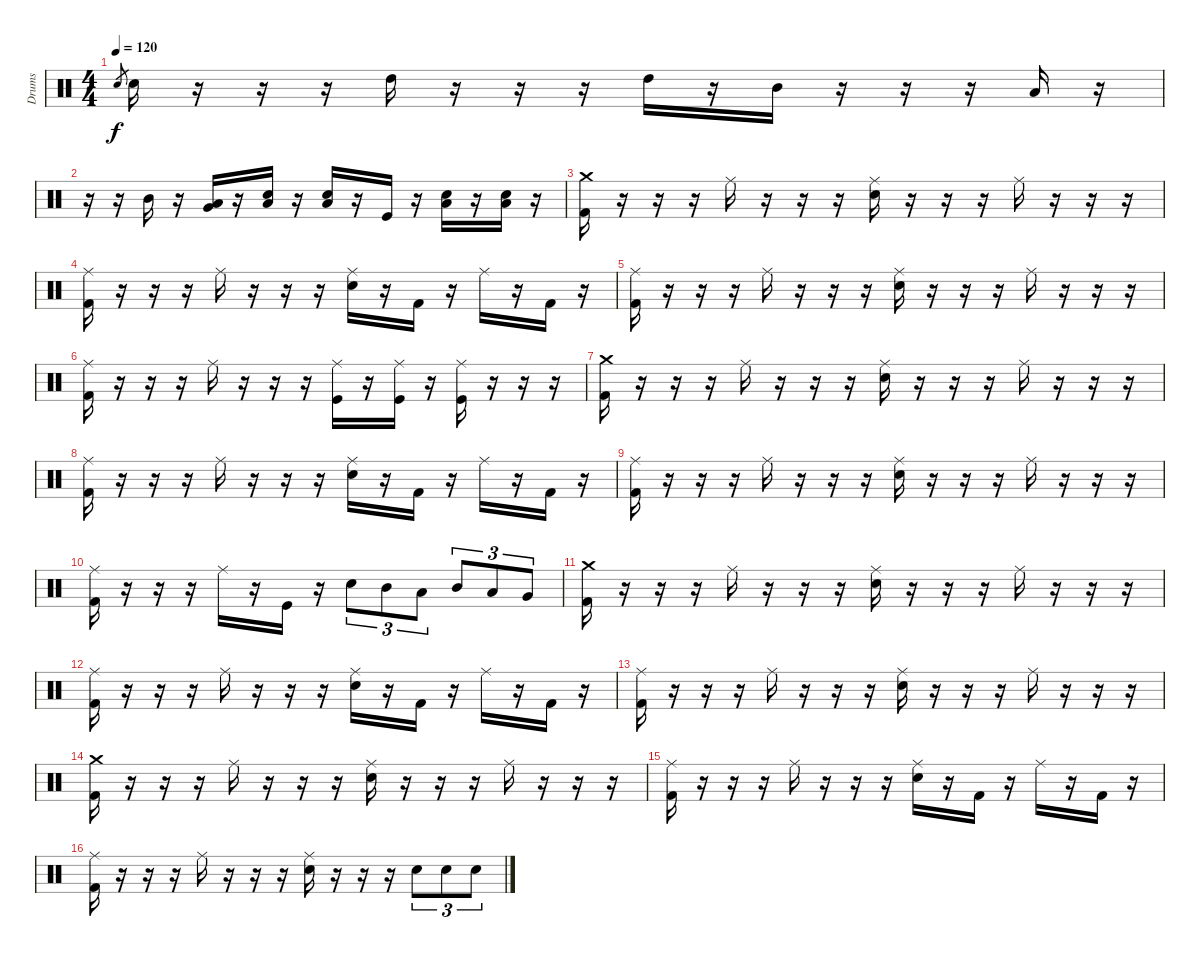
\track ("Drums" "Drums") {instrument percussion}
\staff {score}
\articulation defaults
\ts (4 4)
\tempo 120
\clef neutral
\ks c "Electric Snare (hit)".8{gr dy f} "Electric Snare (hit)".16
r.16 r.16 r.16 "High Tom (hit)".16 r.16 r.16 r.16 "High Tom (hit)".16 r.16 "Mid Tom (hit)".16 r.16 r.16 r.16 "Low Tom (hit)".16 r.16 |
r.16 r.16 "Mid Tom (hit)".16 r.16 ("Low Tom (hit)" "Very Low Tom (hit)").16 r.16 ("Electric Snare (hit)" "Low Floor Tom (hit)").16 r.16 ("Electric Snare (hit)" "Low Floor Tom (hit)").16 r.16 "Kick (hit)".16 r.16 ("Electric Snare (hit)" "Low Floor Tom (hit)").16 r.16 ("Electric Snare (hit)" "Low Floor Tom (hit)").16 r.16 |
("Crash medium (hit)" "Kick (hit) 2").16 r.16 r.16 r.16 "Ride (middle)".16 r.16 r.16 r.16 ("Ride (middle)" "Electric Snare (hit)").16 r.16 r.16 r.16 "Ride (middle)".16 r.16 r.16 r.16 |
("Ride (middle)" "Kick (hit) 2").16 r.16 r.16 r.16 "Ride (middle)".16 r.16 r.16 r.16 ("Ride (middle)" "Electric Snare (hit)").16 r.16 "Kick (hit) 2".16 r.16 "Ride (middle)".16 r.16 "Kick (hit) 2".16 r.16 |
("Ride (middle)" "Kick (hit) 2").16 r.16 r.16 r.16 "Ride (middle)".16 r.16 r.16 r.16 ("Ride (middle)" "Electric Snare (hit)").16 r.16 r.16 r.16 "Ride (middle)".16 r.16 r.16 r.16 |
("Ride (middle)" "Kick (hit) 2").16 r.16 r.16 r.16 "Ride (middle)".16 r.16 r.16 r.16 ("Ride (middle)" "Kick (hit)").16 r.16 ("Ride (middle)" "Kick (hit)").16 r.16 ("Ride (middle)" "Kick (hit)").16 r.16 r.16 r.16 |
("Crash medium (hit)" "Kick (hit) 2").16 r.16 r.16 r.16 "Ride (middle)".16 r.16 r.16 r.16 ("Ride (middle)" "Electric Snare (hit)").16 r.16 r.16 r.16 "Ride (middle)".16 r.16 r.16 r.16 |
("Ride (middle)" "Kick (hit) 2").16 r.16 r.16 r.16 "Ride (middle)".16 r.16 r.16 r.16 ("Ride (middle)" "Electric Snare (hit)").16 r.16 "Kick (hit) 2".16 r.16 "Ride (middle)".16 r.16 "Kick (hit) 2".16 r.16 |
("Ride (middle)" "Kick (hit) 2").16 r.16 r.16 r.16 "Ride (middle)".16 r.16 r.16 r.16 ("Ride (middle)" "Electric Snare (hit)").16 r.16 r.16 r.16 "Ride (middle)".16 r.16 r.16 r.16 |
("Ride (middle)" "Kick (hit) 2").16 r.16 r.16 r.16 "Ride (middle)".16 r.16 "Kick (hit)".16 r.16 "Electric Snare (hit)".8{tu (3 2)} "Mid Tom (hit)".8{tu (3 2)} "Low Tom (hit)".8{tu (3 2)} "Mid Tom (hit)".8{tu (3 2)} "Low Tom (hit)".8{tu (3 2)} "Very Low Tom (hit)".8{tu (3 2)} |
("Crash medium (hit)" "Kick (hit) 2").16 r.16 r.16 r.16 "Ride (middle)".16 r.16 r.16 r.16 ("Ride (middle)" "Electric Snare (hit)").16 r.16 r.16 r.16 "Ride (middle)".16 r.16 r.16 r.16 |
("Ride (middle)" "Kick (hit) 2").16 r.16 r.16 r.16 "Ride (middle)".16 r.16 r.16 r.16 ("Ride (middle)" "Electric Snare (hit)").16 r.16 "Kick (hit) 2".16 r.16 "Ride (middle)".16 r.16 "Kick (hit) 2".16 r.16 |
("Ride (middle)" "Kick (hit) 2").16 r.16 r.16 r.16 "Ride (middle)".16 r.16 r.16 r.16 ("Ride (middle)" "Electric Snare (hit)").16 r.16 r.16 r.16 "Ride (middle)".16 r.16 r.16 r.16 |
("Crash medium (hit)" "Kick (hit) 2").16 r.16 r.16 r.16 "Ride (middle)".16 r.16 r.16 r.16 ("Ride (middle)" "Electric Snare (hit)").16 r.16 r.16 r.16 "Ride (middle)".16 r.16 r.16 r.16 |
("Ride (middle)" "Kick (hit) 2").16 r.16 r.16 r.16 "Ride (middle)".16 r.16 r.16 r.16 ("Ride (middle)" "Electric Snare (hit)").16 r.16 "Kick (hit) 2".16 r.16 "Ride (middle)".16 r.16 "Kick (hit) 2".16 r.16 |
("Ride (middle)" "Kick (hit) 2").16 r.16 r.16 r.16 "Ride (middle)".16 r.16 r.16 r.16 ("Ride (middle)" "Electric Snare (hit)").16 r.16 r.16 r.16 "Electric Snare (hit)".8{tu (3 2)} "Electric Snare (hit)".8{tu (3 2)} "Electric Snare (hit)".8{tu (3 2)}
